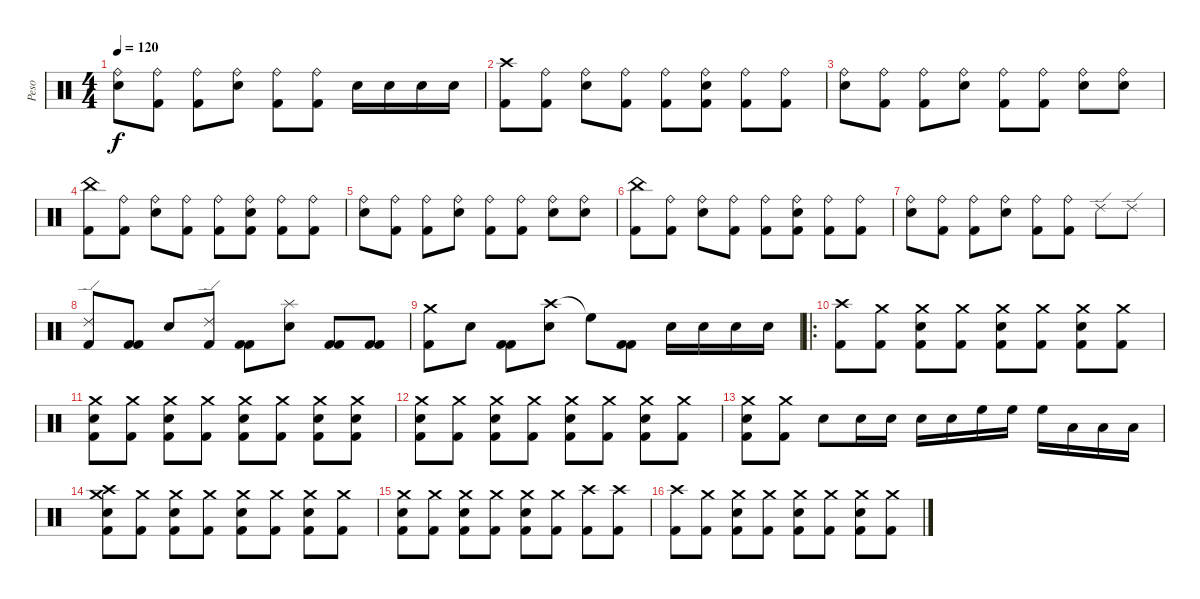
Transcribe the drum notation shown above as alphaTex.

\track ("Peso" "Peso") {instrument percussion}
\staff {score}
\articulation defaults
\ts (4 4)
\tempo 120
\clef neutral
\ks c
("Ride (bell)" "Snare (hit) 2").8{dy f} ("Ride (bell)" "Kick (hit) 2").8 ("Ride (bell)" "Kick (hit) 2").8 ("Ride (bell)" "Snare (hit) 2").8 ("Ride (bell)" "Kick (hit) 2").8 ("Ride (bell)" "Kick (hit) 2").8 "Snare (hit) 2".16 "Snare (hit) 2".16 "Snare (hit) 2".16 "Snare (hit) 2".16 |
("Crash high (hit)" "Kick (hit) 2").8 ("Ride (bell)" "Kick (hit) 2").8 ("Ride (bell)" "Snare (hit) 2").8 ("Ride (bell)" "Kick (hit) 2").8 ("Ride (bell)" "Kick (hit) 2").8 ("Ride (bell)" "Snare (hit) 2" "Kick (hit) 2").8 ("Ride (bell)" "Kick (hit) 2").8 ("Ride (bell)" "Kick (hit) 2").8 |
("Ride (bell)" "Snare (hit) 2").8 ("Ride (bell)" "Kick (hit) 2").8 ("Ride (bell)" "Kick (hit) 2").8 ("Ride (bell)" "Snare (hit) 2").8 ("Ride (bell)" "Kick (hit) 2").8 ("Ride (bell)" "Kick (hit) 2").8 ("Ride (bell)" "Snare (hit) 2").8 ("Ride (bell)" "Snare (hit) 2").8 |
("China (hit)" "Kick (hit) 2").8 ("Ride (bell)" "Kick (hit) 2").8 ("Ride (bell)" "Snare (hit) 2").8 ("Ride (bell)" "Kick (hit) 2").8 ("Ride (bell)" "Kick (hit) 2").8 ("Ride (bell)" "Snare (hit) 2" "Kick (hit) 2").8 ("Ride (bell)" "Kick (hit) 2").8 ("Ride (bell)" "Kick (hit) 2").8 |
("Ride (bell)" "Snare (hit) 2").8 ("Ride (bell)" "Kick (hit) 2").8 ("Ride (bell)" "Kick (hit) 2").8 ("Ride (bell)" "Snare (hit) 2").8 ("Ride (bell)" "Kick (hit) 2").8 ("Ride (bell)" "Kick (hit) 2").8 ("Ride (bell)" "Snare (hit) 2").8 ("Ride (bell)" "Snare (hit) 2").8 |
("China (hit)" "Kick (hit) 2").8 ("Ride (bell)" "Kick (hit) 2").8 ("Ride (bell)" "Snare (hit) 2").8 ("Ride (bell)" "Kick (hit) 2").8 ("Ride (bell)" "Kick (hit) 2").8 ("Ride (bell)" "Snare (hit) 2" "Kick (hit) 2").8 ("Ride (bell)" "Kick (hit) 2").8 ("Ride (bell)" "Kick (hit) 2").8 |
("Ride (bell)" "Snare (hit) 2").8 ("Ride (bell)" "Kick (hit) 2").8 ("Ride (bell)" "Kick (hit) 2").8 ("Ride (bell)" "Snare (hit) 2").8 ("Ride (bell)" "Kick (hit) 2").8 ("Ride (bell)" "Kick (hit) 2").8 "Ride (edge) 2".8 "Ride (edge) 2".8 |
("Ride (edge) 2" "Kick (hit) 2").8 ("Kick (hit) 2" "Kick (hit) 2").8 "Snare (hit) 2".8 ("Ride (edge) 2" "Kick (hit) 2").8 ("Kick (hit) 2" "Kick (hit) 2").8 ("Splash (hit)" "Snare (hit) 2").8{volume 12} ("Kick (hit) 2" "Kick (hit) 2").8 ("Kick (hit) 2" "Kick (hit) 2").8 |
("Crash medium (hit)" "Kick (hit) 2").8{volume 14} "Snare (hit) 2".8 ("Kick (hit) 2" "Kick (hit) 2").8 ("Crash high (hit)" "Snare (hit) 2").8{volume 16} "High Floor Tom (hit)"{t}.8 ("Kick (hit) 2" "Kick (hit) 2").8 "Snare (hit) 2".16 "Snare (hit) 2".16 "Snare (hit) 2".16 "Snare (hit) 2".16 |
\ro
("Crash high (hit)" "Kick (hit) 2").8 ("Crash medium (hit)" "Kick (hit) 2").8 ("Crash medium (hit)" "Snare (hit) 2" "Kick (hit) 2").8 ("Crash medium (hit)" "Kick (hit) 2").8 ("Crash medium (hit)" "Snare (hit) 2" "Kick (hit) 2").8 ("Crash medium (hit)" "Kick (hit) 2").8 ("Crash medium (hit)" "Snare (hit) 2" "Kick (hit) 2").8 ("Crash medium (hit)" "Kick (hit) 2").8 |
("Crash medium (hit)" "Snare (hit) 2" "Kick (hit) 2").8 ("Crash medium (hit)" "Kick (hit) 2").8 ("Crash medium (hit)" "Snare (hit) 2" "Kick (hit) 2").8 ("Crash medium (hit)" "Kick (hit) 2").8 ("Crash medium (hit)" "Snare (hit) 2" "Kick (hit) 2").8 ("Crash medium (hit)" "Kick (hit) 2").8 ("Crash medium (hit)" "Snare (hit) 2" "Kick (hit) 2").8 ("Crash medium (hit)" "Snare (hit) 2" "Kick (hit) 2").8 |
("Crash medium (hit)" "Snare (hit) 2" "Kick (hit) 2").8 ("Crash medium (hit)" "Kick (hit) 2").8 ("Crash medium (hit)" "Snare (hit) 2" "Kick (hit) 2").8 ("Crash medium (hit)" "Kick (hit) 2").8 ("Crash medium (hit)" "Snare (hit) 2" "Kick (hit) 2").8 ("Crash medium (hit)" "Kick (hit) 2").8 ("Crash medium (hit)" "Snare (hit) 2" "Kick (hit) 2").8 ("Crash medium (hit)" "Kick (hit) 2").8 |
("Crash medium (hit)" "Snare (hit) 2" "Kick (hit) 2").8 ("Crash medium (hit)" "Kick (hit) 2").8 "Snare (hit) 2".8 "Snare (hit) 2".16 "Snare (hit) 2".16 "Snare (hit) 2".16 "Snare (hit) 2".16 "High Floor Tom (hit)".16 "High Floor Tom (hit)".16 "High Floor Tom (hit)".16 "Low Floor Tom (hit)".16 "Low Floor Tom (hit)".16 "Low Floor Tom (hit)".16 |
("Crash high (hit)" "Crash medium (hit)" "Snare (hit) 2" "Kick (hit) 2").8 ("Crash medium (hit)" "Kick (hit) 2").8 ("Crash medium (hit)" "Snare (hit) 2" "Kick (hit) 2").8 ("Crash medium (hit)" "Kick (hit) 2").8 ("Crash medium (hit)" "Snare (hit) 2" "Kick (hit) 2").8 ("Crash medium (hit)" "Kick (hit) 2").8 ("Crash medium (hit)" "Snare (hit) 2" "Kick (hit) 2").8 ("Crash medium (hit)" "Kick (hit) 2").8 |
("Crash medium (hit)" "Snare (hit) 2" "Kick (hit) 2").8 ("Crash medium (hit)" "Kick (hit) 2").8 ("Crash medium (hit)" "Snare (hit) 2" "Kick (hit) 2").8 ("Crash medium (hit)" "Kick (hit) 2").8 ("Crash medium (hit)" "Snare (hit) 2" "Kick (hit) 2").8 ("Crash medium (hit)" "Kick (hit) 2").8 ("Crash high (hit)" "Kick (hit) 2").8 ("Crash high (hit)" "Kick (hit) 2").8{volume 12} |
("Crash high (hit)" "Kick (hit) 2").8{volume 14} ("Crash medium (hit)" "Kick (hit) 2").8 ("Crash medium (hit)" "Snare (hit) 2" "Kick (hit) 2").8 ("Crash medium (hit)" "Kick (hit) 2").8 ("Crash medium (hit)" "Snare (hit) 2" "Kick (hit) 2").8 ("Crash medium (hit)" "Kick (hit) 2").8 ("Crash medium (hit)" "Snare (hit) 2" "Kick (hit) 2").8 ("Crash medium (hit)" "Kick (hit) 2").8
